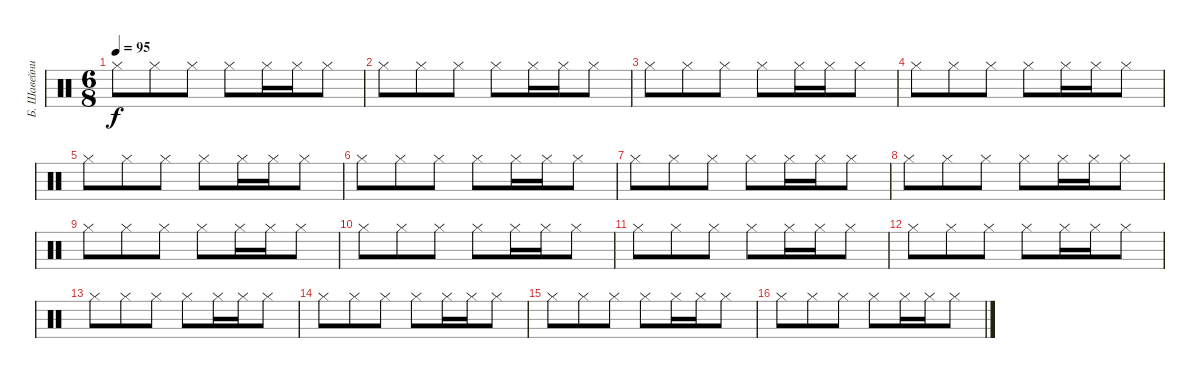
\track ("Б. Шавейников" "Б. Шавейни") {instrument percussion}
\staff {score}
\articulation defaults
\ts (6 8)
\tempo 95
\clef neutral
\ks c "Hi-Hat (closed)".8{dy f} "Hi-Hat (closed)".8 "Hi-Hat (closed)".8 "Hi-Hat (closed)".8 "Hi-Hat (closed)".16 "Hi-Hat (closed)".16 "Hi-Hat (closed)".8
|
"Hi-Hat (closed)".8 "Hi-Hat (closed)".8 "Hi-Hat (closed)".8 "Hi-Hat (closed)".8 "Hi-Hat (closed)".16 "Hi-Hat (closed)".16 "Hi-Hat (closed)".8 |
"Hi-Hat (closed)".8 "Hi-Hat (closed)".8 "Hi-Hat (closed)".8 "Hi-Hat (closed)".8 "Hi-Hat (closed)".16 "Hi-Hat (closed)".16 "Hi-Hat (closed)".8 |
"Hi-Hat (closed)".8 "Hi-Hat (closed)".8 "Hi-Hat (closed)".8 "Hi-Hat (closed)".8 "Hi-Hat (closed)".16 "Hi-Hat (closed)".16 "Hi-Hat (closed)".8 |
"Hi-Hat (closed)".8 "Hi-Hat (closed)".8 "Hi-Hat (closed)".8 "Hi-Hat (closed)".8 "Hi-Hat (closed)".16 "Hi-Hat (closed)".16 "Hi-Hat (closed)".8 |
"Hi-Hat (closed)".8 "Hi-Hat (closed)".8 "Hi-Hat (closed)".8 "Hi-Hat (closed)".8 "Hi-Hat (closed)".16 "Hi-Hat (closed)".16 "Hi-Hat (closed)".8 |
"Hi-Hat (closed)".8 "Hi-Hat (closed)".8 "Hi-Hat (closed)".8 "Hi-Hat (closed)".8 "Hi-Hat (closed)".16 "Hi-Hat (closed)".16 "Hi-Hat (closed)".8 |
"Hi-Hat (closed)".8 "Hi-Hat (closed)".8 "Hi-Hat (closed)".8 "Hi-Hat (closed)".8 "Hi-Hat (closed)".16 "Hi-Hat (closed)".16 "Hi-Hat (closed)".8 |
"Hi-Hat (closed)".8 "Hi-Hat (closed)".8 "Hi-Hat (closed)".8 "Hi-Hat (closed)".8 "Hi-Hat (closed)".16 "Hi-Hat (closed)".16 "Hi-Hat (closed)".8 |
"Hi-Hat (closed)".8 "Hi-Hat (closed)".8 "Hi-Hat (closed)".8 "Hi-Hat (closed)".8 "Hi-Hat (closed)".16 "Hi-Hat (closed)".16 "Hi-Hat (closed)".8 |
"Hi-Hat (closed)".8 "Hi-Hat (closed)".8 "Hi-Hat (closed)".8 "Hi-Hat (closed)".8 "Hi-Hat (closed)".16 "Hi-Hat (closed)".16 "Hi-Hat (closed)".8 |
"Hi-Hat (closed)".8 "Hi-Hat (closed)".8 "Hi-Hat (closed)".8 "Hi-Hat (closed)".8 "Hi-Hat (closed)".16 "Hi-Hat (closed)".16 "Hi-Hat (closed)".8 |
"Hi-Hat (closed)".8 "Hi-Hat (closed)".8 "Hi-Hat (closed)".8 "Hi-Hat (closed)".8 "Hi-Hat (closed)".16 "Hi-Hat (closed)".16 "Hi-Hat (closed)".8 |
"Hi-Hat (closed)".8 "Hi-Hat (closed)".8 "Hi-Hat (closed)".8 "Hi-Hat (closed)".8 "Hi-Hat (closed)".16 "Hi-Hat (closed)".16 "Hi-Hat (closed)".8 |
"Hi-Hat (closed)".8 "Hi-Hat (closed)".8 "Hi-Hat (closed)".8 "Hi-Hat (closed)".8 "Hi-Hat (closed)".16 "Hi-Hat (closed)".16 "Hi-Hat (closed)".8 |
"Hi-Hat (closed)".8 "Hi-Hat (closed)".8 "Hi-Hat (closed)".8 "Hi-Hat (closed)".8 "Hi-Hat (closed)".16 "Hi-Hat (closed)".16 "Hi-Hat (closed)".8
